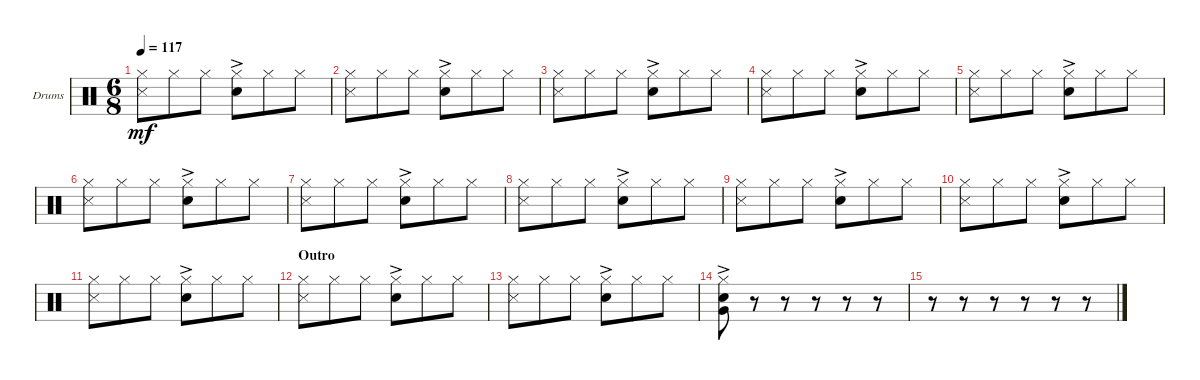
\defaultSystemsLayout 4
\bracketExtendMode groupsimilarinstruments
\firstSystemTrackNameOrientation horizontal
\otherSystemsTrackNameOrientation horizontal
\track ("Drumkit" "Drums") {instrument percussion}
\staff {score}
\articulation defaults
\ts (6 8)
\tempo 117
\clef neutral
\ks c
("Hi-Hat (closed)" "Snare (side stick) 3").8{dy mf} "Hi-Hat (closed)".8 "Hi-Hat (closed)".8 ("Hi-Hat (closed)" "Snare (hit) 2"{ac}).8 "Hi-Hat (closed)".8 "Hi-Hat (closed)".8 |
("Hi-Hat (closed)" "Snare (side stick) 3").8 "Hi-Hat (closed)".8 "Hi-Hat (closed)".8 ("Hi-Hat (closed)" "Snare (hit) 2"{ac}).8 "Hi-Hat (closed)".8 "Hi-Hat (closed)".8 |
("Hi-Hat (closed)" "Snare (side stick) 3").8 "Hi-Hat (closed)".8 "Hi-Hat (closed)".8 ("Hi-Hat (closed)" "Snare (hit) 2"{ac}).8 "Hi-Hat (closed)".8 "Hi-Hat (closed)".8 |
("Hi-Hat (closed)" "Snare (side stick) 3").8 "Hi-Hat (closed)".8 "Hi-Hat (closed)".8 ("Hi-Hat (closed)" "Snare (hit) 2"{ac}).8 "Hi-Hat (closed)".8 "Hi-Hat (closed)".8 |
("Hi-Hat (closed)" "Snare (side stick) 3").8 "Hi-Hat (closed)".8 "Hi-Hat (closed)".8 ("Hi-Hat (closed)" "Snare (hit) 2"{ac}).8 "Hi-Hat (closed)".8 "Hi-Hat (closed)".8 |
("Hi-Hat (closed)" "Snare (side stick) 3").8 "Hi-Hat (closed)".8 "Hi-Hat (closed)".8 ("Hi-Hat (closed)" "Snare (hit) 2"{ac}).8 "Hi-Hat (closed)".8 "Hi-Hat (closed)".8 |
("Hi-Hat (closed)" "Snare (side stick) 3").8 "Hi-Hat (closed)".8 "Hi-Hat (closed)".8 ("Hi-Hat (closed)" "Snare (hit) 2"{ac}).8 "Hi-Hat (closed)".8 "Hi-Hat (closed)".8 |
("Hi-Hat (closed)" "Snare (side stick) 3").8 "Hi-Hat (closed)".8 "Hi-Hat (closed)".8 ("Hi-Hat (closed)" "Snare (hit) 2"{ac}).8 "Hi-Hat (closed)".8 "Hi-Hat (closed)".8 |
("Hi-Hat (closed)" "Snare (side stick) 3").8 "Hi-Hat (closed)".8 "Hi-Hat (closed)".8 ("Hi-Hat (closed)" "Snare (hit) 2"{ac}).8 "Hi-Hat (closed)".8 "Hi-Hat (closed)".8 |
("Hi-Hat (closed)" "Snare (side stick) 3").8 "Hi-Hat (closed)".8 "Hi-Hat (closed)".8 ("Hi-Hat (closed)" "Snare (hit) 2"{ac}).8 "Hi-Hat (closed)".8 "Hi-Hat (closed)".8 |
("Hi-Hat (closed)" "Snare (side stick) 3").8 "Hi-Hat (closed)".8 "Hi-Hat (closed)".8 ("Hi-Hat (closed)" "Snare (hit) 2"{ac}).8 "Hi-Hat (closed)".8 "Hi-Hat (closed)".8 |
\section ("" "Outro")
("Hi-Hat (closed)" "Snare (side stick) 3").8 "Hi-Hat (closed)".8 "Hi-Hat (closed)".8 ("Hi-Hat (closed)" "Snare (hit) 2"{ac}).8 "Hi-Hat (closed)".8 "Hi-Hat (closed)".8 |
("Hi-Hat (closed)" "Snare (side stick) 3").8 "Hi-Hat (closed)".8 "Hi-Hat (closed)".8 ("Hi-Hat (closed)" "Snare (hit) 2"{ac}).8 "Hi-Hat (closed)".8 "Hi-Hat (closed)".8 |
("Snare (hit) 2"{ac} "Very Low Tom (hit)" "Hi-Hat (closed)").8 r.8 r.8 r.8 r.8 r.8 |
r.8 r.8 r.8 r.8 r.8 r.8
